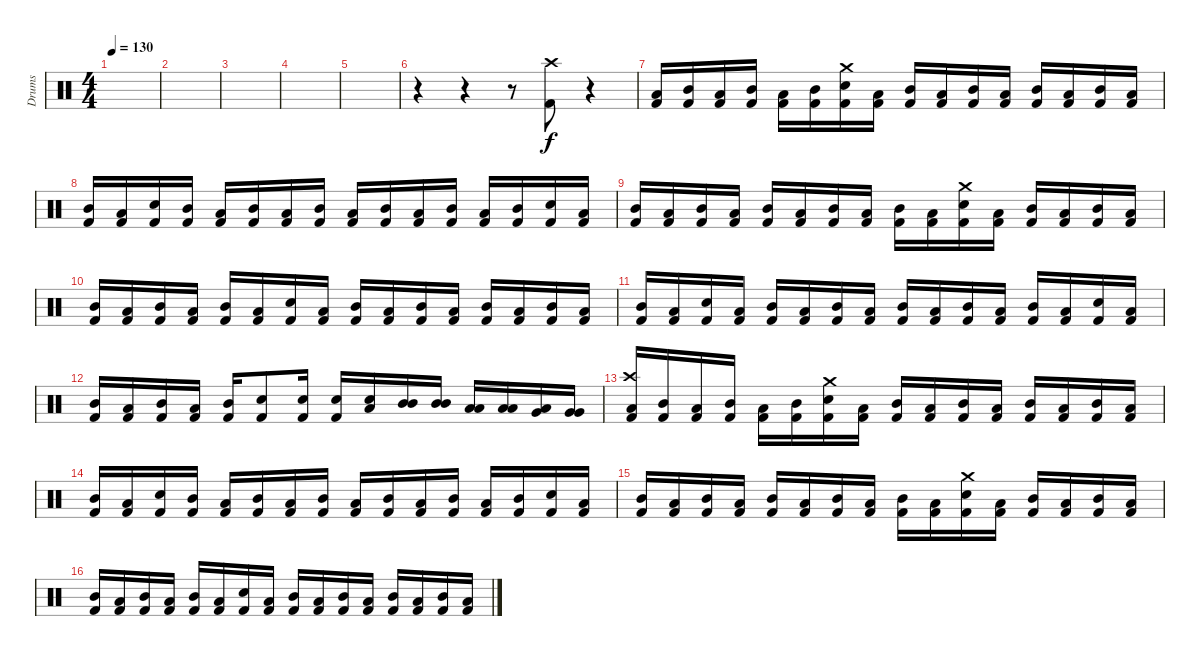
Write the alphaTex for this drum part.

\track ("Drums" "Drums") {instrument percussion}
\staff {score}
\articulation defaults
\ts (4 4)
\tempo 130
\clef neutral
\ks c
|
|
|
|
|
r.4 r.4 r.8 ("Kick (hit) 2" "Crash high (hit)").8 r.4 |
("Kick (hit) 2" "Low Tom (hit)").16 ("Kick (hit) 2" "Mid Tom (hit)").16 ("Kick (hit) 2" "Low Tom (hit)").16 ("Kick (hit) 2" "Mid Tom (hit)").16 ("Kick (hit) 2" "Low Tom (hit)").16 ("Kick (hit) 2" "Mid Tom (hit)").16 ("Kick (hit) 2" "Snare (hit) 2" "Crash medium (hit)").16 ("Kick (hit) 2" "Low Tom (hit)").16 ("Kick (hit) 2" "Mid Tom (hit)").16 ("Kick (hit) 2" "Low Tom (hit)").16 ("Kick (hit) 2" "Mid Tom (hit)").16 ("Kick (hit) 2" "Low Tom (hit)").16 ("Kick (hit) 2" "Mid Tom (hit)").16 ("Kick (hit) 2" "Low Tom (hit)").16 ("Kick (hit) 2" "Mid Tom (hit)").16 ("Kick (hit) 2" "Low Tom (hit)").16 |
("Kick (hit) 2" "Mid Tom (hit)").16 ("Kick (hit) 2" "Low Tom (hit)").16 ("Kick (hit) 2" "Snare (hit) 2").16 ("Kick (hit) 2" "Mid Tom (hit)").16 ("Kick (hit) 2" "Low Tom (hit)").16 ("Kick (hit) 2" "Mid Tom (hit)").16 ("Kick (hit) 2" "Low Tom (hit)").16 ("Kick (hit) 2" "Mid Tom (hit)").16 ("Kick (hit) 2" "Low Tom (hit)").16 ("Kick (hit) 2" "Mid Tom (hit)").16 ("Kick (hit) 2" "Low Tom (hit)").16 ("Kick (hit) 2" "Mid Tom (hit)").16 ("Kick (hit) 2" "Low Tom (hit)").16 ("Kick (hit) 2" "Mid Tom (hit)").16 ("Kick (hit) 2" "Snare (hit) 2").16 ("Kick (hit) 2" "Low Tom (hit)").16 |
("Kick (hit) 2" "Mid Tom (hit)").16 ("Kick (hit) 2" "Low Tom (hit)").16 ("Kick (hit) 2" "Mid Tom (hit)").16 ("Kick (hit) 2" "Low Tom (hit)").16 ("Kick (hit) 2" "Mid Tom (hit)").16 ("Kick (hit) 2" "Low Tom (hit)").16 ("Kick (hit) 2" "Mid Tom (hit)").16 ("Kick (hit) 2" "Low Tom (hit)").16 ("Kick (hit) 2" "Mid Tom (hit)").16 ("Kick (hit) 2" "Low Tom (hit)").16 ("Kick (hit) 2" "Snare (hit) 2" "Crash medium (hit)").16 ("Kick (hit) 2" "Low Tom (hit)").16 ("Kick (hit) 2" "Mid Tom (hit)").16 ("Kick (hit) 2" "Low Tom (hit)").16 ("Kick (hit) 2" "Mid Tom (hit)").16 ("Kick (hit) 2" "Low Tom (hit)").16 |
("Kick (hit) 2" "Mid Tom (hit)").16 ("Kick (hit) 2" "Low Tom (hit)").16 ("Kick (hit) 2" "Mid Tom (hit)").16 ("Kick (hit) 2" "Low Tom (hit)").16 ("Kick (hit) 2" "Mid Tom (hit)").16 ("Kick (hit) 2" "Low Tom (hit)").16 ("Kick (hit) 2" "Snare (hit) 2").16 ("Kick (hit) 2" "Low Tom (hit)").16 ("Kick (hit) 2" "Mid Tom (hit)").16 ("Kick (hit) 2" "Low Tom (hit)").16 ("Kick (hit) 2" "Mid Tom (hit)").16 ("Kick (hit) 2" "Low Tom (hit)").16 ("Kick (hit) 2" "Mid Tom (hit)").16 ("Kick (hit) 2" "Low Tom (hit)").16 ("Kick (hit) 2" "Mid Tom (hit)").16 ("Kick (hit) 2" "Low Tom (hit)").16 |
("Kick (hit) 2" "Mid Tom (hit)").16 ("Kick (hit) 2" "Low Tom (hit)").16 ("Kick (hit) 2" "Snare (hit) 2").16 ("Kick (hit) 2" "Low Tom (hit)").16 ("Kick (hit) 2" "Mid Tom (hit)").16 ("Kick (hit) 2" "Low Tom (hit)").16 ("Kick (hit) 2" "Mid Tom (hit)").16 ("Kick (hit) 2" "Low Tom (hit)").16 ("Kick (hit) 2" "Mid Tom (hit)").16 ("Kick (hit) 2" "Low Tom (hit)").16 ("Kick (hit) 2" "Mid Tom (hit)").16 ("Kick (hit) 2" "Low Tom (hit)").16 ("Kick (hit) 2" "Mid Tom (hit)").16 ("Kick (hit) 2" "Low Tom (hit)").16 ("Kick (hit) 2" "Snare (hit) 2").16 ("Kick (hit) 2" "Low Tom (hit)").16 |
("Kick (hit) 2" "Mid Tom (hit)").16 ("Kick (hit) 2" "Low Tom (hit)").16 ("Kick (hit) 2" "Mid Tom (hit)").16 ("Kick (hit) 2" "Low Tom (hit)").16 ("Kick (hit) 2" "Mid Tom (hit)").16 ("Kick (hit) 2" "Snare (hit) 2").8 ("Kick (hit) 2" "Snare (hit) 2").16 ("Kick (hit) 2" "Snare (hit) 2").16 ("Low Tom (hit)" "Snare (hit) 2").16 ("Mid Tom (hit)" "Mid Tom (hit)").16 ("Mid Tom (hit)" "Mid Tom (hit)").16 ("Low Tom (hit)" "Low Tom (hit)").16 ("Low Tom (hit)" "Low Tom (hit)").16 ("Very Low Tom (hit)" "Low Tom (hit)").16 ("Very Low Tom (hit)" "Very Low Tom (hit)").16 |
("Kick (hit) 2" "Low Tom (hit)" "Crash high (hit)").16 ("Kick (hit) 2" "Mid Tom (hit)").16 ("Kick (hit) 2" "Low Tom (hit)").16 ("Kick (hit) 2" "Mid Tom (hit)").16 ("Kick (hit) 2" "Low Tom (hit)").16 ("Kick (hit) 2" "Mid Tom (hit)").16 ("Kick (hit) 2" "Snare (hit) 2" "Crash medium (hit)").16 ("Kick (hit) 2" "Low Tom (hit)").16 ("Kick (hit) 2" "Mid Tom (hit)").16 ("Kick (hit) 2" "Low Tom (hit)").16 ("Kick (hit) 2" "Mid Tom (hit)").16 ("Kick (hit) 2" "Low Tom (hit)").16 ("Kick (hit) 2" "Mid Tom (hit)").16 ("Kick (hit) 2" "Low Tom (hit)").16 ("Kick (hit) 2" "Mid Tom (hit)").16 ("Kick (hit) 2" "Low Tom (hit)").16 |
("Kick (hit) 2" "Mid Tom (hit)").16 ("Kick (hit) 2" "Low Tom (hit)").16 ("Kick (hit) 2" "Snare (hit) 2").16 ("Kick (hit) 2" "Mid Tom (hit)").16 ("Kick (hit) 2" "Low Tom (hit)").16 ("Kick (hit) 2" "Mid Tom (hit)").16 ("Kick (hit) 2" "Low Tom (hit)").16 ("Kick (hit) 2" "Mid Tom (hit)").16 ("Kick (hit) 2" "Low Tom (hit)").16 ("Kick (hit) 2" "Mid Tom (hit)").16 ("Kick (hit) 2" "Low Tom (hit)").16 ("Kick (hit) 2" "Mid Tom (hit)").16 ("Kick (hit) 2" "Low Tom (hit)").16 ("Kick (hit) 2" "Mid Tom (hit)").16 ("Kick (hit) 2" "Snare (hit) 2").16 ("Kick (hit) 2" "Low Tom (hit)").16 |
("Kick (hit) 2" "Mid Tom (hit)").16 ("Kick (hit) 2" "Low Tom (hit)").16 ("Kick (hit) 2" "Mid Tom (hit)").16 ("Kick (hit) 2" "Low Tom (hit)").16 ("Kick (hit) 2" "Mid Tom (hit)").16 ("Kick (hit) 2" "Low Tom (hit)").16 ("Kick (hit) 2" "Mid Tom (hit)").16 ("Kick (hit) 2" "Low Tom (hit)").16 ("Kick (hit) 2" "Mid Tom (hit)").16 ("Kick (hit) 2" "Low Tom (hit)").16 ("Kick (hit) 2" "Snare (hit) 2" "Crash medium (hit)").16 ("Kick (hit) 2" "Low Tom (hit)").16 ("Kick (hit) 2" "Mid Tom (hit)").16 ("Kick (hit) 2" "Low Tom (hit)").16 ("Kick (hit) 2" "Mid Tom (hit)").16 ("Kick (hit) 2" "Low Tom (hit)").16 |
("Kick (hit) 2" "Mid Tom (hit)").16 ("Kick (hit) 2" "Low Tom (hit)").16 ("Kick (hit) 2" "Mid Tom (hit)").16 ("Kick (hit) 2" "Low Tom (hit)").16 ("Kick (hit) 2" "Mid Tom (hit)").16 ("Kick (hit) 2" "Low Tom (hit)").16 ("Kick (hit) 2" "Snare (hit) 2").16 ("Kick (hit) 2" "Low Tom (hit)").16 ("Kick (hit) 2" "Mid Tom (hit)").16 ("Kick (hit) 2" "Low Tom (hit)").16 ("Kick (hit) 2" "Mid Tom (hit)").16 ("Kick (hit) 2" "Low Tom (hit)").16 ("Kick (hit) 2" "Mid Tom (hit)").16 ("Kick (hit) 2" "Low Tom (hit)").16 ("Kick (hit) 2" "Mid Tom (hit)").16 ("Kick (hit) 2" "Low Tom (hit)").16
